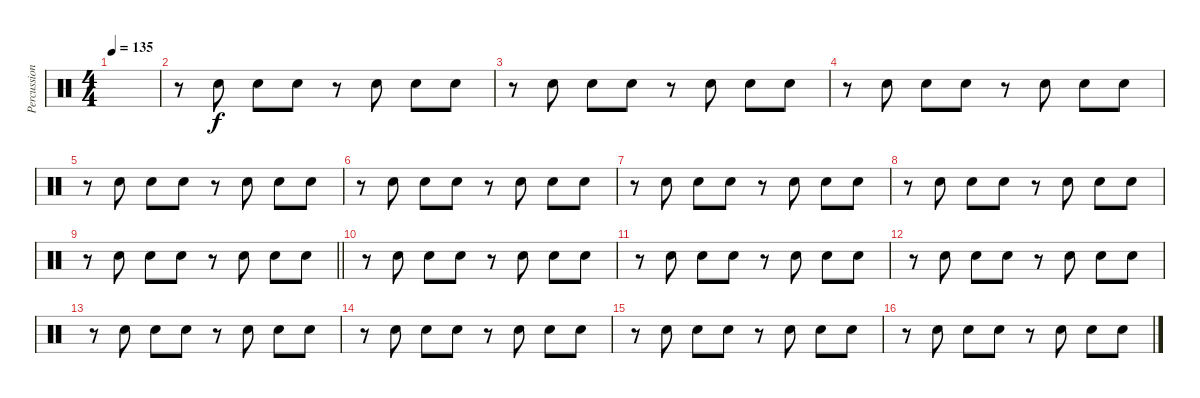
\track ("Percussions 2" "Percussion") {instrument percussion}
\staff {score}
\articulation defaults
\ts (4 4)
\tempo 135
\clef neutral
\ks c
|
r.8 "Snare (hit) 2".8 "Snare (hit) 2".8 "Snare (hit) 2".8 r.8 "Snare (hit) 2".8 "Snare (hit) 2".8 "Snare (hit) 2".8 |
r.8 "Snare (hit) 2".8 "Snare (hit) 2".8 "Snare (hit) 2".8 r.8 "Snare (hit) 2".8 "Snare (hit) 2".8 "Snare (hit) 2".8 |
r.8 "Snare (hit) 2".8 "Snare (hit) 2".8 "Snare (hit) 2".8 r.8 "Snare (hit) 2".8 "Snare (hit) 2".8 "Snare (hit) 2".8 |
r.8 "Snare (hit) 2".8 "Snare (hit) 2".8 "Snare (hit) 2".8 r.8 "Snare (hit) 2".8 "Snare (hit) 2".8 "Snare (hit) 2".8 |
r.8 "Snare (hit) 2".8 "Snare (hit) 2".8 "Snare (hit) 2".8 r.8 "Snare (hit) 2".8 "Snare (hit) 2".8 "Snare (hit) 2".8 |
r.8 "Snare (hit) 2".8 "Snare (hit) 2".8 "Snare (hit) 2".8 r.8 "Snare (hit) 2".8 "Snare (hit) 2".8 "Snare (hit) 2".8 |
r.8 "Snare (hit) 2".8 "Snare (hit) 2".8 "Snare (hit) 2".8 r.8 "Snare (hit) 2".8 "Snare (hit) 2".8 "Snare (hit) 2".8 |
\barLineRight lightlight
r.8 "Snare (hit) 2".8 "Snare (hit) 2".8 "Snare (hit) 2".8 r.8 "Snare (hit) 2".8 "Snare (hit) 2".8 "Snare (hit) 2".8 |
r.8 "Snare (hit) 2".8 "Snare (hit) 2".8 "Snare (hit) 2".8 r.8 "Snare (hit) 2".8 "Snare (hit) 2".8 "Snare (hit) 2".8 |
r.8 "Snare (hit) 2".8 "Snare (hit) 2".8 "Snare (hit) 2".8 r.8 "Snare (hit) 2".8 "Snare (hit) 2".8 "Snare (hit) 2".8 |
r.8 "Snare (hit) 2".8 "Snare (hit) 2".8 "Snare (hit) 2".8 r.8 "Snare (hit) 2".8 "Snare (hit) 2".8 "Snare (hit) 2".8 |
r.8 "Snare (hit) 2".8 "Snare (hit) 2".8 "Snare (hit) 2".8 r.8 "Snare (hit) 2".8 "Snare (hit) 2".8 "Snare (hit) 2".8 |
r.8 "Snare (hit) 2".8 "Snare (hit) 2".8 "Snare (hit) 2".8 r.8 "Snare (hit) 2".8 "Snare (hit) 2".8 "Snare (hit) 2".8 |
r.8 "Snare (hit) 2".8 "Snare (hit) 2".8 "Snare (hit) 2".8 r.8 "Snare (hit) 2".8 "Snare (hit) 2".8 "Snare (hit) 2".8 |
r.8 "Snare (hit) 2".8 "Snare (hit) 2".8 "Snare (hit) 2".8 r.8 "Snare (hit) 2".8 "Snare (hit) 2".8 "Snare (hit) 2".8
